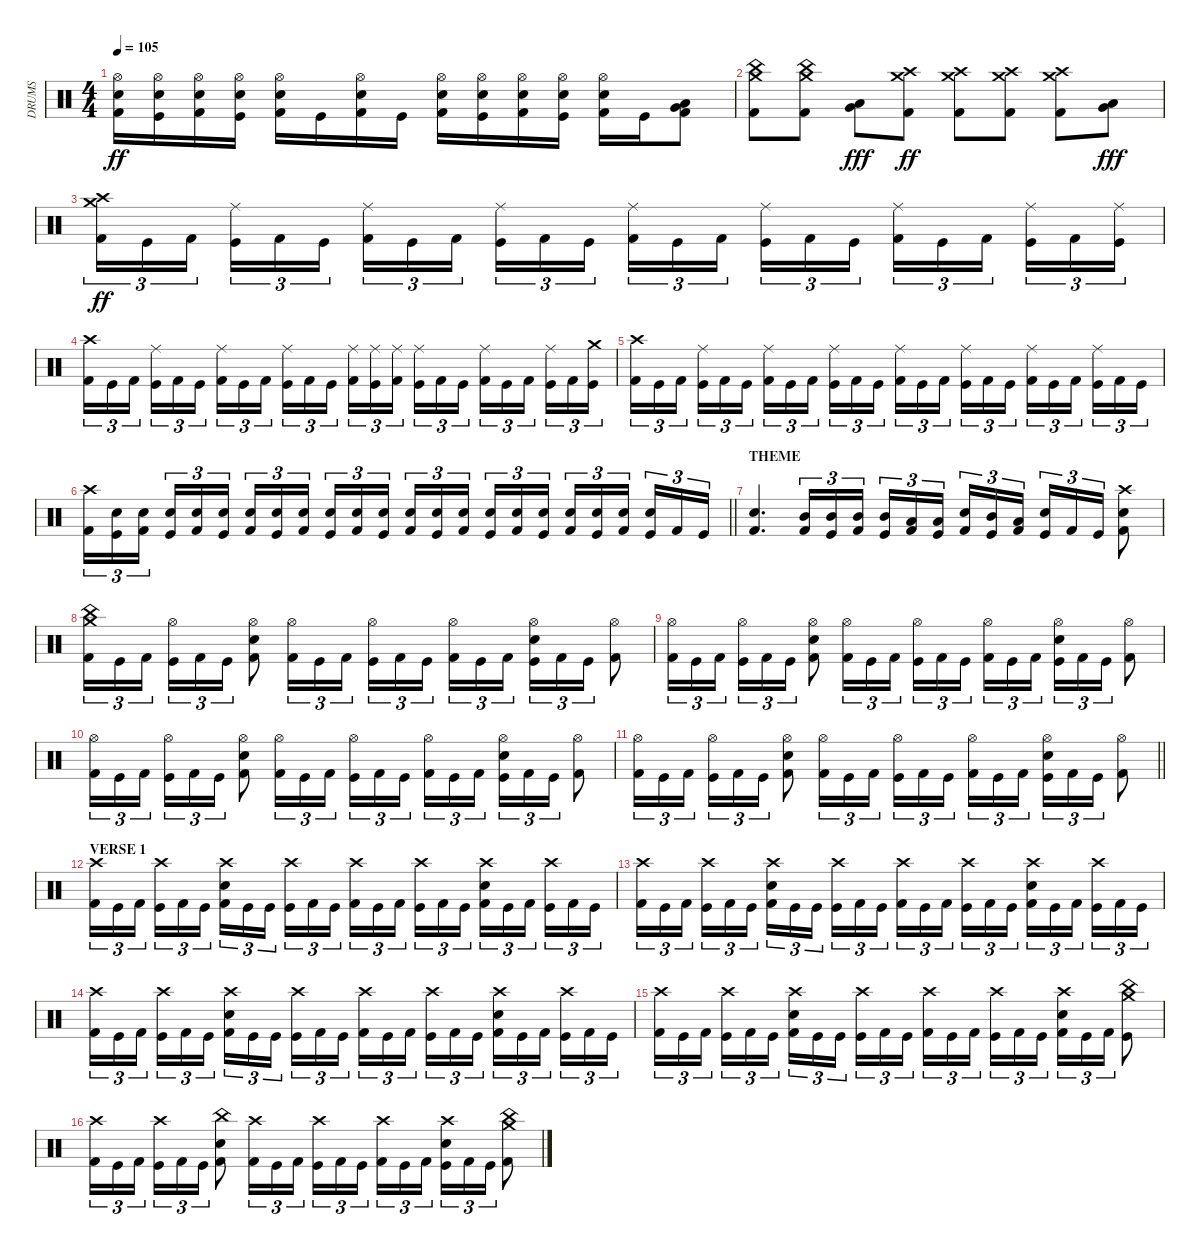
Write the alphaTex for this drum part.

\track ("DRUMS" "DRUMS") {instrument percussion}
\staff {score}
\articulation defaults
\ts (4 4)
\tempo 105
\clef neutral
\ks c
("Hi-Hat (open)" "Snare (hit) 2" "Kick (hit) 2").16{dy ff} ("Hi-Hat (open)" "Snare (hit) 2" "Kick (hit)").16 ("Hi-Hat (open)" "Snare (hit) 2" "Kick (hit) 2").16 ("Hi-Hat (open)" "Snare (hit) 2" "Kick (hit)").16 ("Hi-Hat (open)" "Snare (hit) 2" "Kick (hit) 2").16 "Kick (hit)".16 ("Hi-Hat (open)" "Snare (hit) 2" "Kick (hit) 2").16 "Kick (hit)".16 ("Hi-Hat (open)" "Snare (hit) 2" "Kick (hit) 2").16 ("Hi-Hat (open)" "Snare (hit) 2" "Kick (hit)").16 ("Hi-Hat (open)" "Snare (hit) 2" "Kick (hit) 2").16 ("Hi-Hat (open)" "Snare (hit) 2" "Kick (hit)").16 ("Hi-Hat (open)" "Snare (hit) 2" "Kick (hit) 2").16 "Kick (hit)".16 ("Low Tom (hit)" "Very Low Tom (hit)" "Kick (hit) 2").8 |
("China (hit)" "Crash medium (hit)" "Kick (hit) 2").8 ("China (hit)" "Crash medium (hit)" "Kick (hit) 2").8 ("Low Tom (hit)" "Very Low Tom (hit)").8{dy fff} ("Crash high (hit)" "Crash medium (hit)" "Kick (hit) 2").8{dy ff} ("Crash high (hit)" "Crash medium (hit)" "Kick (hit) 2").8 ("Crash high (hit)" "Crash medium (hit)" "Kick (hit) 2").8 ("Crash high (hit)" "Crash medium (hit)" "Kick (hit) 2").8 ("Low Tom (hit)" "Very Low Tom (hit)").8{dy fff} |
("Crash high (hit)" "Crash medium (hit)" "Kick (hit) 2").16{tu (3 2) dy ff} "Kick (hit)".16{tu (3 2)} "Kick (hit) 2".16{tu (3 2) beam splitsecondary} ("Ride (middle)" "Kick (hit)").16{tu (3 2)} "Kick (hit) 2".16{tu (3 2)} "Kick (hit)".16{tu (3 2)} ("Ride (middle)" "Kick (hit) 2").16{tu (3 2)} "Kick (hit)".16{tu (3 2)} "Kick (hit) 2".16{tu (3 2) beam splitsecondary} ("Ride (middle)" "Kick (hit)").16{tu (3 2)} "Kick (hit) 2".16{tu (3 2)} "Kick (hit)".16{tu (3 2)} ("Ride (middle)" "Kick (hit) 2").16{tu (3 2)} "Kick (hit)".16{tu (3 2)} "Kick (hit) 2".16{tu (3 2) beam splitsecondary} ("Ride (middle)" "Kick (hit)").16{tu (3 2)} "Kick (hit) 2".16{tu (3 2)} "Kick (hit)".16{tu (3 2)} ("Ride (middle)" "Kick (hit) 2").16{tu (3 2)} "Kick (hit)".16{tu (3 2)} "Kick (hit) 2".16{tu (3 2) beam splitsecondary} ("Ride (middle)" "Kick (hit)").16{tu (3 2)} "Kick (hit) 2".16{tu (3 2)} ("Ride (middle)" "Kick (hit)").16{tu (3 2)} |
("Crash high (hit)" "Kick (hit) 2").16{tu (3 2)} "Kick (hit)".16{tu (3 2)} "Kick (hit) 2".16{tu (3 2) beam splitsecondary} ("Ride (middle)" "Kick (hit)").16{tu (3 2)} "Kick (hit) 2".16{tu (3 2)} "Kick (hit)".16{tu (3 2)} ("Ride (middle)" "Kick (hit) 2").16{tu (3 2)} "Kick (hit)".16{tu (3 2)} "Kick (hit) 2".16{tu (3 2) beam splitsecondary} ("Ride (middle)" "Kick (hit)").16{tu (3 2)} "Kick (hit) 2".16{tu (3 2)} "Kick (hit)".16{tu (3 2)} ("Ride (middle)" "Kick (hit) 2").16{tu (3 2)} ("Ride (middle)" "Kick (hit)").16{tu (3 2)} ("Ride (middle)" "Kick (hit) 2").16{tu (3 2) beam splitsecondary} ("Ride (middle)" "Kick (hit)").16{tu (3 2)} "Kick (hit) 2".16{tu (3 2)} "Kick (hit)".16{tu (3 2)} ("Ride (middle)" "Kick (hit) 2").16{tu (3 2)} "Kick (hit)".16{tu (3 2)} "Kick (hit) 2".16{tu (3 2) beam splitsecondary} ("Ride (middle)" "Kick (hit)").16{tu (3 2)} "Kick (hit) 2".16{tu (3 2)} ("Crash medium (hit)" "Kick (hit)").16{tu (3 2)} |
("Crash high (hit)" "Kick (hit) 2").16{tu (3 2)} "Kick (hit)".16{tu (3 2)} "Kick (hit) 2".16{tu (3 2) beam splitsecondary} ("Ride (middle)" "Kick (hit)").16{tu (3 2)} "Kick (hit) 2".16{tu (3 2)} "Kick (hit)".16{tu (3 2)} ("Ride (middle)" "Kick (hit) 2").16{tu (3 2)} "Kick (hit)".16{tu (3 2)} "Kick (hit) 2".16{tu (3 2) beam splitsecondary} ("Ride (middle)" "Kick (hit)").16{tu (3 2)} "Kick (hit) 2".16{tu (3 2)} "Kick (hit)".16{tu (3 2)} ("Ride (middle)" "Kick (hit) 2").16{tu (3 2)} "Kick (hit)".16{tu (3 2)} "Kick (hit) 2".16{tu (3 2) beam splitsecondary} ("Ride (middle)" "Kick (hit)").16{tu (3 2)} "Kick (hit) 2".16{tu (3 2)} "Kick (hit)".16{tu (3 2)} ("Ride (middle)" "Kick (hit) 2").16{tu (3 2)} "Kick (hit)".16{tu (3 2)} "Kick (hit) 2".16{tu (3 2) beam splitsecondary} ("Ride (middle)" "Kick (hit)").16{tu (3 2)} "Kick (hit) 2".16{tu (3 2)} "Kick (hit)".16{tu (3 2)} |
\barLineRight lightlight
("Crash high (hit)" "Kick (hit) 2").16{tu (3 2)} ("Snare (hit) 2" "Kick (hit)").16{tu (3 2)} ("Electric Snare (hit)" "Kick (hit) 2").16{tu (3 2) beam splitsecondary} ("Snare (hit) 2" "Kick (hit)").16{tu (3 2)} ("Electric Snare (hit)" "Kick (hit) 2").16{tu (3 2)} ("Snare (hit) 2" "Kick (hit)").16{tu (3 2)} ("Electric Snare (hit)" "Kick (hit) 2").16{tu (3 2)} ("Snare (hit) 2" "Kick (hit)").16{tu (3 2)} ("Electric Snare (hit)" "Kick (hit) 2").16{tu (3 2) beam splitsecondary} ("Snare (hit) 2" "Kick (hit)").16{tu (3 2)} ("Electric Snare (hit)" "Kick (hit) 2").16{tu (3 2)} ("Snare (hit) 2" "Kick (hit)").16{tu (3 2)} ("Electric Snare (hit)" "Kick (hit) 2").16{tu (3 2)} ("Snare (hit) 2" "Kick (hit)").16{tu (3 2)} ("Electric Snare (hit)" "Kick (hit) 2").16{tu (3 2) beam splitsecondary} ("Snare (hit) 2" "Kick (hit)").16{tu (3 2)} ("Electric Snare (hit)" "Kick (hit) 2").16{tu (3 2)} ("Snare (hit) 2" "Kick (hit)").16{tu (3 2)} ("Electric Snare (hit)" "Kick (hit) 2").16{tu (3 2)} ("Snare (hit) 2" "Kick (hit)").16{tu (3 2)} ("Electric Snare (hit)" "Kick (hit) 2").16{tu (3 2) beam splitsecondary} ("Snare (hit) 2" "Kick (hit)").16{tu (3 2)} "Kick (hit) 2".16{tu (3 2)} "Kick (hit)".16{tu (3 2)} |
\section ("" "THEME")
("Snare (hit)" "Kick (hit) 2").4{d} ("Mid Tom (hit)" "Kick (hit) 2").16{tu (3 2)} ("Mid Tom (hit)" "Kick (hit)").16{tu (3 2)} ("Mid Tom (hit)" "Kick (hit) 2").16{tu (3 2)} ("Mid Tom (hit)" "Kick (hit)").16{tu (3 2)} ("Low Tom (hit)" "Kick (hit) 2").16{tu (3 2)} ("Low Tom (hit)" "Kick (hit)").16{tu (3 2) beam splitsecondary} ("Electric Snare (hit)" "Kick (hit) 2").16{tu (3 2)} ("Mid Tom (hit)" "Kick (hit)").16{tu (3 2)} ("Low Tom (hit)" "Kick (hit) 2").16{tu (3 2)} ("Electric Snare (hit)" "Kick (hit)").16{tu (3 2)} "Kick (hit) 2".16{tu (3 2)} "Kick (hit)".16{tu (3 2)} ("Crash high (hit)" "Snare (hit) 2" "Kick (hit) 2").8 |
("China (hit)" "Crash medium (hit)" "Kick (hit) 2").16{tu (3 2)} "Kick (hit)".16{tu (3 2)} "Kick (hit) 2".16{tu (3 2) beam splitsecondary} ("Hi-Hat (open)" "Kick (hit)").16{tu (3 2)} "Kick (hit) 2".16{tu (3 2)} "Kick (hit)".16{tu (3 2)} ("Hi-Hat (open)" "Snare (hit) 2" "Kick (hit) 2").8 ("Hi-Hat (open)" "Kick (hit) 2").16{tu (3 2)} "Kick (hit)".16{tu (3 2)} "Kick (hit) 2".16{tu (3 2)} ("Hi-Hat (open)" "Kick (hit)").16{tu (3 2)} "Kick (hit) 2".16{tu (3 2)} "Kick (hit)".16{tu (3 2) beam splitsecondary} ("Hi-Hat (open)" "Kick (hit) 2").16{tu (3 2)} "Kick (hit)".16{tu (3 2)} "Kick (hit) 2".16{tu (3 2)} ("Hi-Hat (open)" "Snare (hit) 2" "Kick (hit)").16{tu (3 2)} "Kick (hit) 2".16{tu (3 2)} "Kick (hit)".16{tu (3 2)} ("Hi-Hat (open)" "Kick (hit) 2").8 |
("Hi-Hat (open)" "Kick (hit) 2").16{tu (3 2)} "Kick (hit)".16{tu (3 2)} "Kick (hit) 2".16{tu (3 2) beam splitsecondary} ("Hi-Hat (open)" "Kick (hit)").16{tu (3 2)} "Kick (hit) 2".16{tu (3 2)} "Kick (hit)".16{tu (3 2)} ("Hi-Hat (open)" "Snare (hit) 2" "Kick (hit) 2").8 ("Hi-Hat (open)" "Kick (hit) 2").16{tu (3 2)} "Kick (hit)".16{tu (3 2)} "Kick (hit) 2".16{tu (3 2)} ("Hi-Hat (open)" "Kick (hit)").16{tu (3 2)} "Kick (hit) 2".16{tu (3 2)} "Kick (hit)".16{tu (3 2) beam splitsecondary} ("Hi-Hat (open)" "Kick (hit) 2").16{tu (3 2)} "Kick (hit)".16{tu (3 2)} "Kick (hit) 2".16{tu (3 2)} ("Hi-Hat (open)" "Snare (hit) 2" "Kick (hit)").16{tu (3 2)} "Kick (hit) 2".16{tu (3 2)} "Kick (hit)".16{tu (3 2)} ("Hi-Hat (open)" "Kick (hit) 2").8 |
("Hi-Hat (open)" "Kick (hit) 2").16{tu (3 2)} "Kick (hit)".16{tu (3 2)} "Kick (hit) 2".16{tu (3 2) beam splitsecondary} ("Hi-Hat (open)" "Kick (hit)").16{tu (3 2)} "Kick (hit) 2".16{tu (3 2)} "Kick (hit)".16{tu (3 2)} ("Hi-Hat (open)" "Snare (hit) 2" "Kick (hit) 2").8 ("Hi-Hat (open)" "Kick (hit) 2").16{tu (3 2)} "Kick (hit)".16{tu (3 2)} "Kick (hit) 2".16{tu (3 2)} ("Hi-Hat (open)" "Kick (hit)").16{tu (3 2)} "Kick (hit) 2".16{tu (3 2)} "Kick (hit)".16{tu (3 2) beam splitsecondary} ("Hi-Hat (open)" "Kick (hit) 2").16{tu (3 2)} "Kick (hit)".16{tu (3 2)} "Kick (hit) 2".16{tu (3 2)} ("Hi-Hat (open)" "Snare (hit) 2" "Kick (hit)").16{tu (3 2)} "Kick (hit) 2".16{tu (3 2)} "Kick (hit)".16{tu (3 2)} ("Hi-Hat (open)" "Kick (hit) 2").8 |
\barLineRight lightlight
("Hi-Hat (open)" "Kick (hit) 2").16{tu (3 2)} "Kick (hit)".16{tu (3 2)} "Kick (hit) 2".16{tu (3 2) beam splitsecondary} ("Hi-Hat (open)" "Kick (hit)").16{tu (3 2)} "Kick (hit) 2".16{tu (3 2)} "Kick (hit)".16{tu (3 2)} ("Hi-Hat (open)" "Snare (hit) 2" "Kick (hit) 2").8 ("Hi-Hat (open)" "Kick (hit) 2").16{tu (3 2)} "Kick (hit)".16{tu (3 2)} "Kick (hit) 2".16{tu (3 2)} ("Hi-Hat (open)" "Kick (hit)").16{tu (3 2)} "Kick (hit) 2".16{tu (3 2)} "Kick (hit)".16{tu (3 2) beam splitsecondary} ("Hi-Hat (open)" "Kick (hit) 2").16{tu (3 2)} "Kick (hit)".16{tu (3 2)} "Kick (hit) 2".16{tu (3 2)} ("Hi-Hat (open)" "Snare (hit) 2" "Kick (hit)").16{tu (3 2)} "Kick (hit) 2".16{tu (3 2)} "Kick (hit)".16{tu (3 2)} ("Hi-Hat (open)" "Kick (hit) 2").8 |
\section ("" "VERSE 1")
("Crash high (hit)" "Kick (hit) 2").16{tu (3 2)} "Kick (hit)".16{tu (3 2)} "Kick (hit) 2".16{tu (3 2) beam splitsecondary} ("Crash high (hit)" "Kick (hit)").16{tu (3 2)} "Kick (hit) 2".16{tu (3 2)} "Kick (hit)".16{tu (3 2)} ("Crash high (hit)" "Snare (hit) 2" "Kick (hit) 2").16{tu (3 2)} "Kick (hit)".16{tu (3 2)} "Kick (hit)".16{tu (3 2) beam splitsecondary} ("Crash high (hit)" "Kick (hit)").16{tu (3 2)} "Kick (hit) 2".16{tu (3 2)} "Kick (hit)".16{tu (3 2)} ("Crash high (hit)" "Kick (hit) 2").16{tu (3 2)} "Kick (hit)".16{tu (3 2)} "Kick (hit) 2".16{tu (3 2) beam splitsecondary} ("Crash high (hit)" "Kick (hit)").16{tu (3 2)} "Kick (hit) 2".16{tu (3 2)} "Kick (hit)".16{tu (3 2)} ("Crash high (hit)" "Snare (hit) 2" "Kick (hit) 2").16{tu (3 2)} "Kick (hit)".16{tu (3 2)} "Kick (hit) 2".16{tu (3 2) beam splitsecondary} ("Crash high (hit)" "Kick (hit)").16{tu (3 2)} "Kick (hit) 2".16{tu (3 2)} "Kick (hit)".16{tu (3 2)} |
("Crash high (hit)" "Kick (hit) 2").16{tu (3 2)} "Kick (hit)".16{tu (3 2)} "Kick (hit) 2".16{tu (3 2) beam splitsecondary} ("Crash high (hit)" "Kick (hit)").16{tu (3 2)} "Kick (hit) 2".16{tu (3 2)} "Kick (hit)".16{tu (3 2)} ("Crash high (hit)" "Snare (hit) 2" "Kick (hit) 2").16{tu (3 2)} "Kick (hit)".16{tu (3 2)} "Kick (hit)".16{tu (3 2) beam splitsecondary} ("Crash high (hit)" "Kick (hit)").16{tu (3 2)} "Kick (hit) 2".16{tu (3 2)} "Kick (hit)".16{tu (3 2)} ("Crash high (hit)" "Kick (hit) 2").16{tu (3 2)} "Kick (hit)".16{tu (3 2)} "Kick (hit) 2".16{tu (3 2) beam splitsecondary} ("Crash high (hit)" "Kick (hit)").16{tu (3 2)} "Kick (hit) 2".16{tu (3 2)} "Kick (hit)".16{tu (3 2)} ("Crash high (hit)" "Snare (hit) 2" "Kick (hit) 2").16{tu (3 2)} "Kick (hit)".16{tu (3 2)} "Kick (hit) 2".16{tu (3 2) beam splitsecondary} ("Crash high (hit)" "Kick (hit)").16{tu (3 2)} "Kick (hit) 2".16{tu (3 2)} "Kick (hit)".16{tu (3 2)} |
("Crash high (hit)" "Kick (hit) 2").16{tu (3 2)} "Kick (hit)".16{tu (3 2)} "Kick (hit) 2".16{tu (3 2) beam splitsecondary} ("Crash high (hit)" "Kick (hit)").16{tu (3 2)} "Kick (hit) 2".16{tu (3 2)} "Kick (hit)".16{tu (3 2)} ("Crash high (hit)" "Snare (hit) 2" "Kick (hit) 2").16{tu (3 2)} "Kick (hit)".16{tu (3 2)} "Kick (hit)".16{tu (3 2) beam splitsecondary} ("Crash high (hit)" "Kick (hit)").16{tu (3 2)} "Kick (hit) 2".16{tu (3 2)} "Kick (hit)".16{tu (3 2)} ("Crash high (hit)" "Kick (hit) 2").16{tu (3 2)} "Kick (hit)".16{tu (3 2)} "Kick (hit) 2".16{tu (3 2) beam splitsecondary} ("Crash high (hit)" "Kick (hit)").16{tu (3 2)} "Kick (hit) 2".16{tu (3 2)} "Kick (hit)".16{tu (3 2)} ("Crash high (hit)" "Snare (hit) 2" "Kick (hit) 2").16{tu (3 2)} "Kick (hit)".16{tu (3 2)} "Kick (hit) 2".16{tu (3 2) beam splitsecondary} ("Crash high (hit)" "Kick (hit)").16{tu (3 2)} "Kick (hit) 2".16{tu (3 2)} "Kick (hit)".16{tu (3 2)} |
("Crash high (hit)" "Kick (hit) 2").16{tu (3 2)} "Kick (hit)".16{tu (3 2)} "Kick (hit) 2".16{tu (3 2) beam splitsecondary} ("Crash high (hit)" "Kick (hit)").16{tu (3 2)} "Kick (hit) 2".16{tu (3 2)} "Kick (hit)".16{tu (3 2)} ("Crash high (hit)" "Snare (hit) 2" "Kick (hit) 2").16{tu (3 2)} "Kick (hit)".16{tu (3 2)} "Kick (hit)".16{tu (3 2) beam splitsecondary} ("Crash high (hit)" "Kick (hit)").16{tu (3 2)} "Kick (hit) 2".16{tu (3 2)} "Kick (hit)".16{tu (3 2)} ("Crash high (hit)" "Kick (hit) 2").16{tu (3 2)} "Kick (hit)".16{tu (3 2)} "Kick (hit) 2".16{tu (3 2) beam splitsecondary} ("Crash high (hit)" "Kick (hit)").16{tu (3 2)} "Kick (hit) 2".16{tu (3 2)} "Kick (hit)".16{tu (3 2)} ("Crash high (hit)" "Snare (hit) 2" "Kick (hit) 2").16{tu (3 2)} "Kick (hit)".16{tu (3 2)} "Kick (hit) 2".16{tu (3 2)} ("Crash medium (hit)" "China (hit)" "Kick (hit)").8 |
("Crash high (hit)" "Kick (hit) 2").16{tu (3 2)} "Kick (hit)".16{tu (3 2)} "Kick (hit) 2".16{tu (3 2) beam splitsecondary} ("Crash high (hit)" "Kick (hit)").16{tu (3 2)} "Kick (hit) 2".16{tu (3 2)} "Kick (hit)".16{tu (3 2)} ("China (hit)" "Snare (hit) 2" "Kick (hit) 2").8 ("Crash high (hit)" "Kick (hit) 2").16{tu (3 2)} "Kick (hit)".16{tu (3 2)} "Kick (hit) 2".16{tu (3 2)} ("Crash high (hit)" "Kick (hit)").16{tu (3 2)} "Kick (hit) 2".16{tu (3 2)} "Kick (hit)".16{tu (3 2) beam splitsecondary} ("Crash high (hit)" "Kick (hit) 2").16{tu (3 2)} "Kick (hit)".16{tu (3 2)} "Kick (hit) 2".16{tu (3 2)} ("Crash high (hit)" "Snare (hit) 2" "Kick (hit)").16{tu (3 2)} "Kick (hit) 2".16{tu (3 2)} "Kick (hit)".16{tu (3 2)} ("Crash medium (hit)" "China (hit)" "Kick (hit) 2").8
